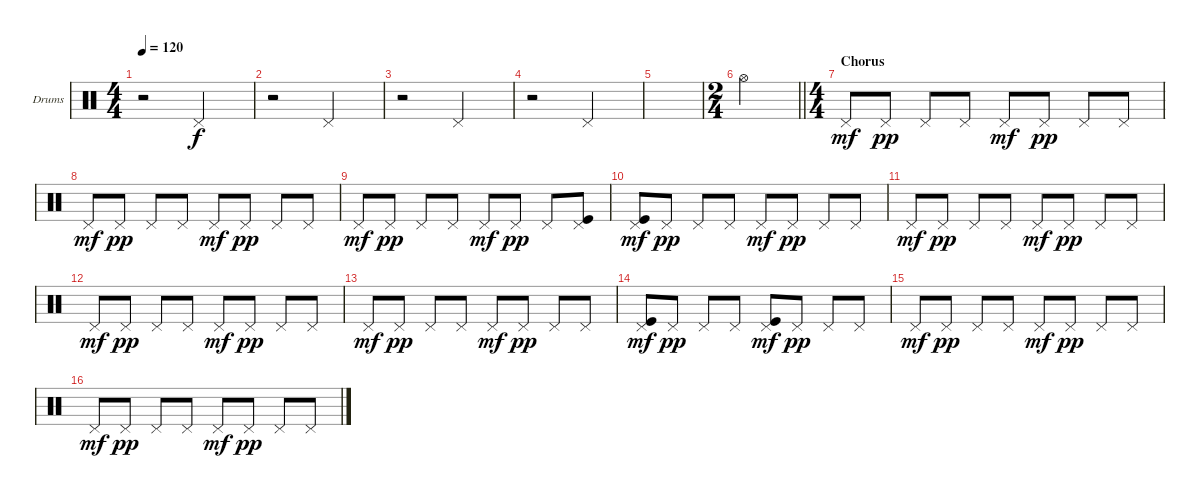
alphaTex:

\defaultSystemsLayout 4
\bracketExtendMode groupsimilarinstruments
\firstSystemTrackNameOrientation horizontal
\otherSystemsTrackNameOrientation horizontal
\track ("Drumkit" "Drums") {instrument percussion}
\staff {score}
\articulation defaults
\ts (4 4)
\tempo 120
\clef neutral
\scale
0.333333
\ks aminor
r.2{dy f} "Pedal Hi-Hat (hit)".2 |
\scale
0.333333 r.2 "Pedal Hi-Hat (hit)".2 |
\scale
0.333333 r.2 "Pedal Hi-Hat (hit)".2 |
\scale
0.262911 r.2 "Pedal Hi-Hat (hit)".2 |
\scale
0.262911 |
\ts (2 4)
\scale
0.474178
\barLineRight lightlight "Hi-Hat (open)".2
|
\ts (4 4)
\section ("" "Chorus")
\scale
0.474178 "Pedal Hi-Hat (hit)".8{dy mf} "Pedal Hi-Hat (hit)".8{dy pp} "Pedal Hi-Hat (hit)".8 "Pedal Hi-Hat (hit)".8 "Pedal Hi-Hat (hit)".8{dy mf} "Pedal Hi-Hat (hit)".8{dy pp} "Pedal Hi-Hat (hit)".8 "Pedal Hi-Hat (hit)".8 |
\scale
0.262911 "Pedal Hi-Hat (hit)".8{dy mf} "Pedal Hi-Hat (hit)".8{dy pp} "Pedal Hi-Hat (hit)".8 "Pedal Hi-Hat (hit)".8 "Pedal Hi-Hat (hit)".8{dy mf} "Pedal Hi-Hat (hit)".8{dy pp} "Pedal Hi-Hat (hit)".8 "Pedal Hi-Hat (hit)".8 |
\scale
0.262911 "Pedal Hi-Hat (hit)".8{dy mf} "Pedal Hi-Hat (hit)".8{dy pp} "Pedal Hi-Hat (hit)".8 "Pedal Hi-Hat (hit)".8 "Pedal Hi-Hat (hit)".8{dy mf} "Pedal Hi-Hat (hit)".8{dy pp} "Pedal Hi-Hat (hit)".8 ("Pedal Hi-Hat (hit)" "Kick (hit)").8 |
\scale
0.333333 ("Pedal Hi-Hat (hit)" "Kick (hit)").8{dy mf} "Pedal Hi-Hat (hit)".8{dy pp} "Pedal Hi-Hat (hit)".8 "Pedal Hi-Hat (hit)".8 "Pedal Hi-Hat (hit)".8{dy mf} "Pedal Hi-Hat (hit)".8{dy pp} "Pedal Hi-Hat (hit)".8 "Pedal Hi-Hat (hit)".8 |
\scale
0.333333 "Pedal Hi-Hat (hit)".8{dy mf} "Pedal Hi-Hat (hit)".8{dy pp} "Pedal Hi-Hat (hit)".8 "Pedal Hi-Hat (hit)".8 "Pedal Hi-Hat (hit)".8{dy mf} "Pedal Hi-Hat (hit)".8{dy pp} "Pedal Hi-Hat (hit)".8 "Pedal Hi-Hat (hit)".8 |
\scale
0.333333 "Pedal Hi-Hat (hit)".8{dy mf} "Pedal Hi-Hat (hit)".8{dy pp} "Pedal Hi-Hat (hit)".8 "Pedal Hi-Hat (hit)".8 "Pedal Hi-Hat (hit)".8{dy mf} "Pedal Hi-Hat (hit)".8{dy pp} "Pedal Hi-Hat (hit)".8 "Pedal Hi-Hat (hit)".8 |
\scale
0.333333 "Pedal Hi-Hat (hit)".8{dy mf} "Pedal Hi-Hat (hit)".8{dy pp} "Pedal Hi-Hat (hit)".8 "Pedal Hi-Hat (hit)".8 "Pedal Hi-Hat (hit)".8{dy mf} "Pedal Hi-Hat (hit)".8{dy pp} "Pedal Hi-Hat (hit)".8 "Pedal Hi-Hat (hit)".8 |
\scale
0.333333 ("Pedal Hi-Hat (hit)" "Kick (hit)").8{dy mf} "Pedal Hi-Hat (hit)".8{dy pp} "Pedal Hi-Hat (hit)".8 "Pedal Hi-Hat (hit)".8 ("Pedal Hi-Hat (hit)" "Kick (hit)").8{dy mf} "Pedal Hi-Hat (hit)".8{dy pp} "Pedal Hi-Hat (hit)".8 "Pedal Hi-Hat (hit)".8 |
\scale
0.333333 "Pedal Hi-Hat (hit)".8{dy mf} "Pedal Hi-Hat (hit)".8{dy pp} "Pedal Hi-Hat (hit)".8 "Pedal Hi-Hat (hit)".8 "Pedal Hi-Hat (hit)".8{dy mf} "Pedal Hi-Hat (hit)".8{dy pp} "Pedal Hi-Hat (hit)".8 "Pedal Hi-Hat (hit)".8 |
\scale
0.333333 "Pedal Hi-Hat (hit)".8{dy mf} "Pedal Hi-Hat (hit)".8{dy pp} "Pedal Hi-Hat (hit)".8 "Pedal Hi-Hat (hit)".8 "Pedal Hi-Hat (hit)".8{dy mf} "Pedal Hi-Hat (hit)".8{dy pp} "Pedal Hi-Hat (hit)".8 "Pedal Hi-Hat (hit)".8
